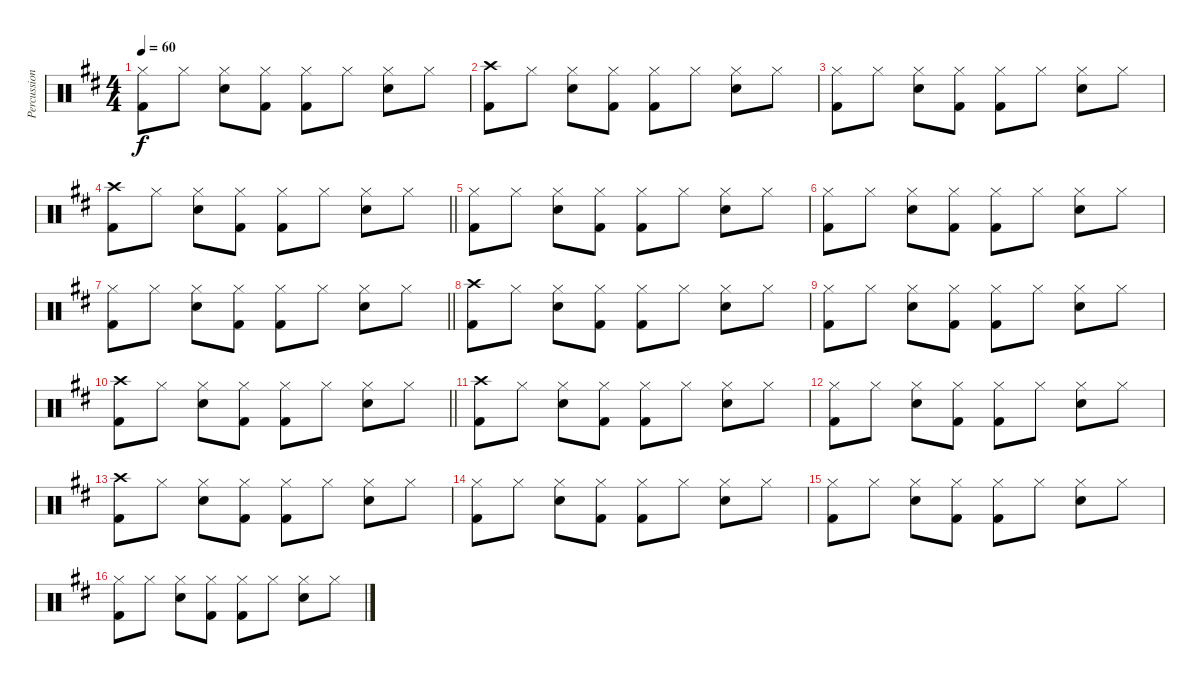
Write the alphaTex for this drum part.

\track ("Percussioni" "Percussion") {instrument percussion}
\staff {score}
\articulation defaults
\ts (4 4)
\tempo 60
\clef neutral
\ks d
("Hi-Hat (closed)" "Kick (hit) 2").8{dy f} "Hi-Hat (closed)".8 ("Hi-Hat (closed)" "Electric Snare (hit)").8 ("Hi-Hat (closed)" "Kick (hit) 2").8 ("Hi-Hat (closed)" "Kick (hit) 2").8 "Hi-Hat (closed)".8 ("Hi-Hat (closed)" "Electric Snare (hit)").8 "Hi-Hat (closed)".8 |
("Crash high (hit)" "Kick (hit) 2").8 "Hi-Hat (closed)".8 ("Hi-Hat (closed)" "Electric Snare (hit)").8 ("Hi-Hat (closed)" "Kick (hit) 2").8 ("Hi-Hat (closed)" "Kick (hit) 2").8 "Hi-Hat (closed)".8 ("Hi-Hat (closed)" "Electric Snare (hit)").8 "Hi-Hat (closed)".8 |
("Hi-Hat (closed)" "Kick (hit) 2").8 "Hi-Hat (closed)".8 ("Hi-Hat (closed)" "Electric Snare (hit)").8 ("Hi-Hat (closed)" "Kick (hit) 2").8 ("Hi-Hat (closed)" "Kick (hit) 2").8 "Hi-Hat (closed)".8 ("Hi-Hat (closed)" "Electric Snare (hit)").8 "Hi-Hat (closed)".8 |
\barLineRight lightlight
("Crash high (hit)" "Kick (hit) 2").8 "Hi-Hat (closed)".8 ("Hi-Hat (closed)" "Electric Snare (hit)").8 ("Hi-Hat (closed)" "Kick (hit) 2").8 ("Hi-Hat (closed)" "Kick (hit) 2").8 "Hi-Hat (closed)".8 ("Hi-Hat (closed)" "Electric Snare (hit)").8 "Hi-Hat (closed)".8 |
("Hi-Hat (closed)" "Kick (hit) 2").8 "Hi-Hat (closed)".8 ("Hi-Hat (closed)" "Electric Snare (hit)").8 ("Hi-Hat (closed)" "Kick (hit) 2").8 ("Hi-Hat (closed)" "Kick (hit) 2").8 "Hi-Hat (closed)".8 ("Hi-Hat (closed)" "Electric Snare (hit)").8 "Hi-Hat (closed)".8 |
("Hi-Hat (closed)" "Kick (hit) 2").8 "Hi-Hat (closed)".8 ("Hi-Hat (closed)" "Electric Snare (hit)").8 ("Hi-Hat (closed)" "Kick (hit) 2").8 ("Hi-Hat (closed)" "Kick (hit) 2").8 "Hi-Hat (closed)".8 ("Hi-Hat (closed)" "Electric Snare (hit)").8 "Hi-Hat (closed)".8 |
\barLineRight lightlight
("Hi-Hat (closed)" "Kick (hit) 2").8 "Hi-Hat (closed)".8 ("Hi-Hat (closed)" "Electric Snare (hit)").8 ("Hi-Hat (closed)" "Kick (hit) 2").8 ("Hi-Hat (closed)" "Kick (hit) 2").8 "Hi-Hat (closed)".8 ("Hi-Hat (closed)" "Electric Snare (hit)").8 "Hi-Hat (closed)".8 |
("Crash high (hit)" "Kick (hit) 2").8 "Hi-Hat (closed)".8 ("Hi-Hat (closed)" "Electric Snare (hit)").8 ("Hi-Hat (closed)" "Kick (hit) 2").8 ("Hi-Hat (closed)" "Kick (hit) 2").8 "Hi-Hat (closed)".8 ("Hi-Hat (closed)" "Electric Snare (hit)").8 "Hi-Hat (closed)".8 |
("Hi-Hat (closed)" "Kick (hit) 2").8 "Hi-Hat (closed)".8 ("Hi-Hat (closed)" "Electric Snare (hit)").8 ("Hi-Hat (closed)" "Kick (hit) 2").8 ("Hi-Hat (closed)" "Kick (hit) 2").8 "Hi-Hat (closed)".8 ("Hi-Hat (closed)" "Electric Snare (hit)").8 "Hi-Hat (closed)".8 |
\barLineRight lightlight
("Crash high (hit)" "Kick (hit) 2").8 "Hi-Hat (closed)".8 ("Hi-Hat (closed)" "Electric Snare (hit)").8 ("Hi-Hat (closed)" "Kick (hit) 2").8 ("Hi-Hat (closed)" "Kick (hit) 2").8 "Hi-Hat (closed)".8 ("Hi-Hat (closed)" "Electric Snare (hit)").8 "Hi-Hat (closed)".8 |
("Crash high (hit)" "Kick (hit) 2").8 "Hi-Hat (closed)".8 ("Hi-Hat (closed)" "Electric Snare (hit)").8 ("Hi-Hat (closed)" "Kick (hit) 2").8 ("Hi-Hat (closed)" "Kick (hit) 2").8 "Hi-Hat (closed)".8 ("Hi-Hat (closed)" "Electric Snare (hit)").8 "Hi-Hat (closed)".8 |
("Hi-Hat (closed)" "Kick (hit) 2").8 "Hi-Hat (closed)".8 ("Hi-Hat (closed)" "Electric Snare (hit)").8 ("Hi-Hat (closed)" "Kick (hit) 2").8 ("Hi-Hat (closed)" "Kick (hit) 2").8 "Hi-Hat (closed)".8 ("Hi-Hat (closed)" "Electric Snare (hit)").8 "Hi-Hat (closed)".8 |
("Crash high (hit)" "Kick (hit) 2").8 "Hi-Hat (closed)".8 ("Hi-Hat (closed)" "Electric Snare (hit)").8 ("Hi-Hat (closed)" "Kick (hit) 2").8 ("Hi-Hat (closed)" "Kick (hit) 2").8 "Hi-Hat (closed)".8 ("Hi-Hat (closed)" "Electric Snare (hit)").8 "Hi-Hat (closed)".8 |
("Hi-Hat (closed)" "Kick (hit) 2").8 "Hi-Hat (closed)".8 ("Hi-Hat (closed)" "Electric Snare (hit)").8 ("Hi-Hat (closed)" "Kick (hit) 2").8 ("Hi-Hat (closed)" "Kick (hit) 2").8 "Hi-Hat (closed)".8 ("Hi-Hat (closed)" "Electric Snare (hit)").8 "Hi-Hat (closed)".8 |
("Hi-Hat (closed)" "Kick (hit) 2").8 "Hi-Hat (closed)".8 ("Hi-Hat (closed)" "Electric Snare (hit)").8 ("Hi-Hat (closed)" "Kick (hit) 2").8 ("Hi-Hat (closed)" "Kick (hit) 2").8 "Hi-Hat (closed)".8 ("Hi-Hat (closed)" "Electric Snare (hit)").8 "Hi-Hat (closed)".8 |
("Hi-Hat (closed)" "Kick (hit) 2").8 "Hi-Hat (closed)".8 ("Hi-Hat (closed)" "Electric Snare (hit)").8 ("Hi-Hat (closed)" "Kick (hit) 2").8 ("Hi-Hat (closed)" "Kick (hit) 2").8 "Hi-Hat (closed)".8 ("Hi-Hat (closed)" "Electric Snare (hit)").8 "Hi-Hat (closed)".8
